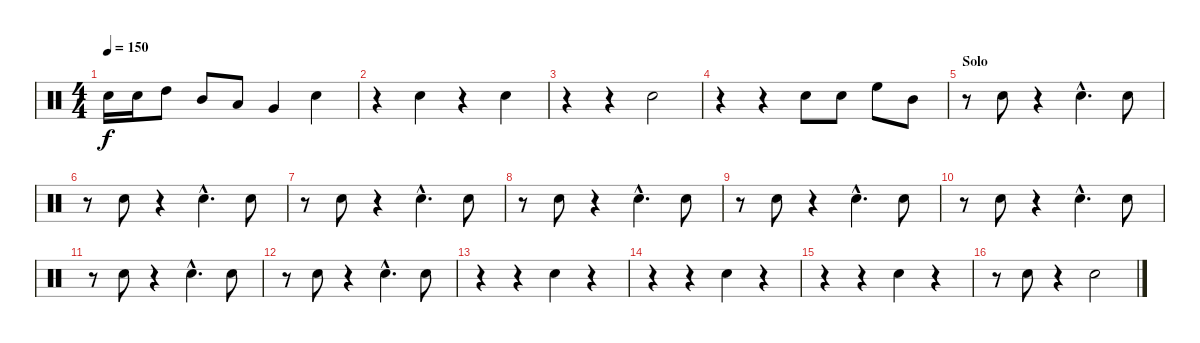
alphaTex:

\track "" {instrument percussion}
\staff {score}
\articulation defaults
\ts (4 4)
\tempo 150
\clef neutral
\ks c "Electric Snare (hit)".16{dy f} "Electric Snare (hit)".16 "High Tom (hit)".8 "Mid Tom (hit)".8 "Low Tom (hit)".8 "Very Low Tom (hit)".4 "Electric Snare (hit)".4
|
r.4 "Electric Snare (hit)".4 r.4 "Electric Snare (hit)".4 |
r.4 r.4 "Electric Snare (hit)".2 |
r.4 r.4 "Electric Snare (hit)".8 "Electric Snare (hit)".8 "High Floor Tom (hit)".8 "Mid Tom (hit)".8 |
\section ("" "Solo")
r.8 "Electric Snare (hit)".8 r.4 "Electric Snare (hit)"{hac}.4{d} "Electric Snare (hit)".8 |
r.8 "Electric Snare (hit)".8 r.4 "Electric Snare (hit)"{hac}.4{d} "Electric Snare (hit)".8 |
r.8 "Electric Snare (hit)".8 r.4 "Electric Snare (hit)"{hac}.4{d} "Electric Snare (hit)".8 |
r.8 "Electric Snare (hit)".8 r.4 "Electric Snare (hit)"{hac}.4{d} "Electric Snare (hit)".8 |
r.8 "Electric Snare (hit)".8 r.4 "Electric Snare (hit)"{hac}.4{d} "Electric Snare (hit)".8 |
r.8 "Electric Snare (hit)".8 r.4 "Electric Snare (hit)"{hac}.4{d} "Electric Snare (hit)".8 |
r.8 "Electric Snare (hit)".8 r.4 "Electric Snare (hit)"{hac}.4{d} "Electric Snare (hit)".8 |
r.8 "Electric Snare (hit)".8 r.4 "Electric Snare (hit)"{hac}.4{d} "Electric Snare (hit)".8 |
r.4 r.4 "Electric Snare (hit)".4 r.4 |
r.4 r.4 "Electric Snare (hit)".4 r.4 |
r.4 r.4 "Electric Snare (hit)".4 r.4 |
r.8 "Electric Snare (hit)".8 r.4 "Electric Snare (hit)".2
